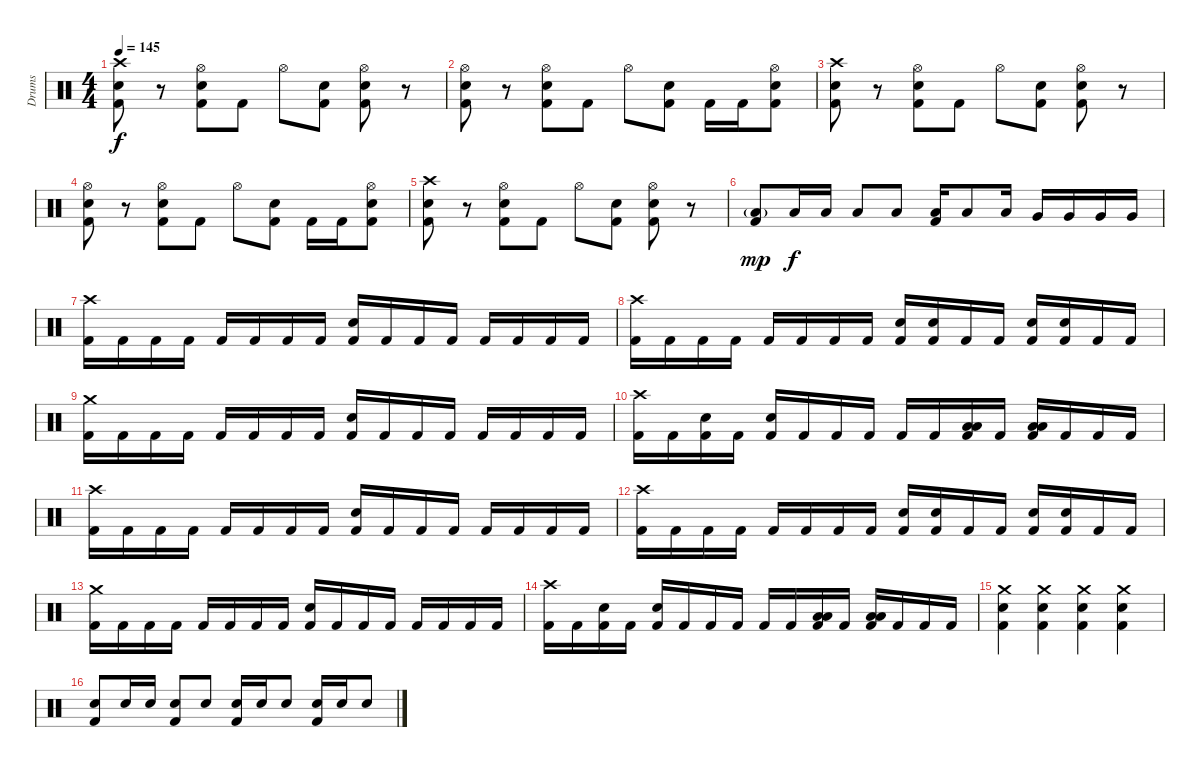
\track ("Drums" "Drums") {instrument percussion}
\staff {score}
\articulation defaults
\ts (4 4)
\tempo 145
\clef neutral
\ks c
("Crash high (hit)" "Snare (hit) 2" "Kick (hit) 2").8{dy f} r.8 ("Snare (hit) 2" "Hi-Hat (open)" "Kick (hit) 2").8 "Kick (hit) 2".8 "Hi-Hat (open)".8 ("Snare (hit) 2" "Kick (hit) 2").8 ("Snare (hit) 2" "Hi-Hat (open)" "Kick (hit) 2").8 r.8 |
("Hi-Hat (open)" "Snare (hit) 2" "Kick (hit) 2").8 r.8 ("Snare (hit) 2" "Hi-Hat (open)" "Kick (hit) 2").8 "Kick (hit) 2".8 "Hi-Hat (open)".8 ("Snare (hit) 2" "Kick (hit) 2").8 "Kick (hit) 2".16 "Kick (hit) 2".16 ("Hi-Hat (open)" "Snare (hit) 2" "Kick (hit) 2").8 |
("Crash high (hit)" "Snare (hit) 2" "Kick (hit) 2").8 r.8 ("Snare (hit) 2" "Hi-Hat (open)" "Kick (hit) 2").8 "Kick (hit) 2".8 "Hi-Hat (open)".8 ("Snare (hit) 2" "Kick (hit) 2").8 ("Snare (hit) 2" "Hi-Hat (open)" "Kick (hit) 2").8 r.8 |
("Hi-Hat (open)" "Snare (hit) 2" "Kick (hit) 2").8 r.8 ("Snare (hit) 2" "Hi-Hat (open)" "Kick (hit) 2").8 "Kick (hit) 2".8 "Hi-Hat (open)".8 ("Snare (hit) 2" "Kick (hit) 2").8 "Kick (hit) 2".16 "Kick (hit) 2".16 ("Hi-Hat (open)" "Snare (hit) 2" "Kick (hit) 2").8 |
("Crash high (hit)" "Snare (hit) 2" "Kick (hit) 2").8 r.8 ("Snare (hit) 2" "Hi-Hat (open)" "Kick (hit) 2").8 "Kick (hit) 2".8 "Hi-Hat (open)".8 ("Snare (hit) 2" "Kick (hit) 2").8 ("Snare (hit) 2" "Hi-Hat (open)" "Kick (hit) 2").8 r.8 |
("Low Tom (hit)"{g} "Kick (hit) 2").8{dy mp} "Low Tom (hit)".16{dy f} "Low Tom (hit)".16 "Low Tom (hit)".8 "Low Tom (hit)".8 ("Low Tom (hit)" "Kick (hit) 2").16 "Low Tom (hit)".8 "Low Tom (hit)".16 "Very Low Tom (hit)".16 "Very Low Tom (hit)".16 "Very Low Tom (hit)".16 "Very Low Tom (hit)".16 |
("Crash high (hit)" "Kick (hit) 2").16 "Kick (hit) 2".16 "Kick (hit) 2".16 "Kick (hit) 2".16 "Kick (hit) 2".16 "Kick (hit) 2".16 "Kick (hit) 2".16 "Kick (hit) 2".16 ("Snare (hit) 2" "Kick (hit) 2").16 "Kick (hit) 2".16 "Kick (hit) 2".16 "Kick (hit) 2".16 "Kick (hit) 2".16 "Kick (hit) 2".16 "Kick (hit) 2".16 "Kick (hit) 2".16 |
("Crash high (hit)" "Kick (hit) 2").16 "Kick (hit) 2".16 "Kick (hit) 2".16 "Kick (hit) 2".16 "Kick (hit) 2".16 "Kick (hit) 2".16 "Kick (hit) 2".16 "Kick (hit) 2".16 ("Snare (hit) 2" "Kick (hit) 2").16 ("Snare (hit) 2" "Kick (hit) 2").16 "Kick (hit) 2".16 "Kick (hit) 2".16 ("Snare (hit) 2" "Kick (hit) 2").16 ("Snare (hit) 2" "Kick (hit) 2").16 "Kick (hit) 2".16 "Kick (hit) 2".16 |
("Crash medium (hit)" "Kick (hit) 2").16 "Kick (hit) 2".16 "Kick (hit) 2".16 "Kick (hit) 2".16 "Kick (hit) 2".16 "Kick (hit) 2".16 "Kick (hit) 2".16 "Kick (hit) 2".16 ("Snare (hit) 2" "Kick (hit) 2").16 "Kick (hit) 2".16 "Kick (hit) 2".16 "Kick (hit) 2".16 "Kick (hit) 2".16 "Kick (hit) 2".16 "Kick (hit) 2".16 "Kick (hit) 2".16 |
("Crash high (hit)" "Kick (hit) 2").16 "Kick (hit) 2".16 ("Snare (hit) 2" "Kick (hit) 2").16 "Kick (hit) 2".16 ("Snare (hit) 2" "Kick (hit) 2").16 "Kick (hit) 2".16 "Kick (hit) 2".16 "Kick (hit) 2".16 "Kick (hit) 2".16 "Kick (hit) 2".16 ("Low Tom (hit)" "Low Tom (hit)" "Kick (hit) 2").16 "Kick (hit) 2".16 ("Low Tom (hit)" "Low Tom (hit)" "Kick (hit) 2").16 "Kick (hit) 2".16 "Kick (hit) 2".16 "Kick (hit) 2".16 |
("Crash high (hit)" "Kick (hit) 2").16 "Kick (hit) 2".16 "Kick (hit) 2".16 "Kick (hit) 2".16 "Kick (hit) 2".16 "Kick (hit) 2".16 "Kick (hit) 2".16 "Kick (hit) 2".16 ("Snare (hit) 2" "Kick (hit) 2").16 "Kick (hit) 2".16 "Kick (hit) 2".16 "Kick (hit) 2".16 "Kick (hit) 2".16 "Kick (hit) 2".16 "Kick (hit) 2".16 "Kick (hit) 2".16 |
("Crash high (hit)" "Kick (hit) 2").16 "Kick (hit) 2".16 "Kick (hit) 2".16 "Kick (hit) 2".16 "Kick (hit) 2".16 "Kick (hit) 2".16 "Kick (hit) 2".16 "Kick (hit) 2".16 ("Snare (hit) 2" "Kick (hit) 2").16 ("Snare (hit) 2" "Kick (hit) 2").16 "Kick (hit) 2".16 "Kick (hit) 2".16 ("Snare (hit) 2" "Kick (hit) 2").16 ("Snare (hit) 2" "Kick (hit) 2").16 "Kick (hit) 2".16 "Kick (hit) 2".16 |
("Crash medium (hit)" "Kick (hit) 2").16 "Kick (hit) 2".16 "Kick (hit) 2".16 "Kick (hit) 2".16 "Kick (hit) 2".16 "Kick (hit) 2".16 "Kick (hit) 2".16 "Kick (hit) 2".16 ("Snare (hit) 2" "Kick (hit) 2").16 "Kick (hit) 2".16 "Kick (hit) 2".16 "Kick (hit) 2".16 "Kick (hit) 2".16 "Kick (hit) 2".16 "Kick (hit) 2".16 "Kick (hit) 2".16 |
("Crash high (hit)" "Kick (hit) 2").16 "Kick (hit) 2".16 ("Snare (hit) 2" "Kick (hit) 2").16 "Kick (hit) 2".16 ("Snare (hit) 2" "Kick (hit) 2").16 "Kick (hit) 2".16 "Kick (hit) 2".16 "Kick (hit) 2".16 "Kick (hit) 2".16 "Kick (hit) 2".16 ("Low Tom (hit)" "Low Tom (hit)" "Kick (hit) 2").16 "Kick (hit) 2".16 ("Low Tom (hit)" "Low Tom (hit)" "Kick (hit) 2").16 "Kick (hit) 2".16 "Kick (hit) 2".16 "Kick (hit) 2".16 |
("Crash medium (hit)" "Snare (hit) 2" "Kick (hit) 2").4 ("Crash medium (hit)" "Snare (hit) 2" "Kick (hit) 2").4 ("Crash medium (hit)" "Snare (hit) 2" "Kick (hit) 2").4 ("Crash medium (hit)" "Snare (hit) 2" "Kick (hit) 2").4 |
("Snare (hit) 2" "Kick (hit) 2").8 "Snare (hit) 2".16 "Snare (hit) 2".16 ("Snare (hit) 2" "Kick (hit) 2").8 "Snare (hit) 2".8 ("Snare (hit) 2" "Kick (hit) 2").16 "Snare (hit) 2".16 "Snare (hit) 2".8 ("Snare (hit) 2" "Kick (hit) 2").16 "Snare (hit) 2".16 "Snare (hit) 2".8
